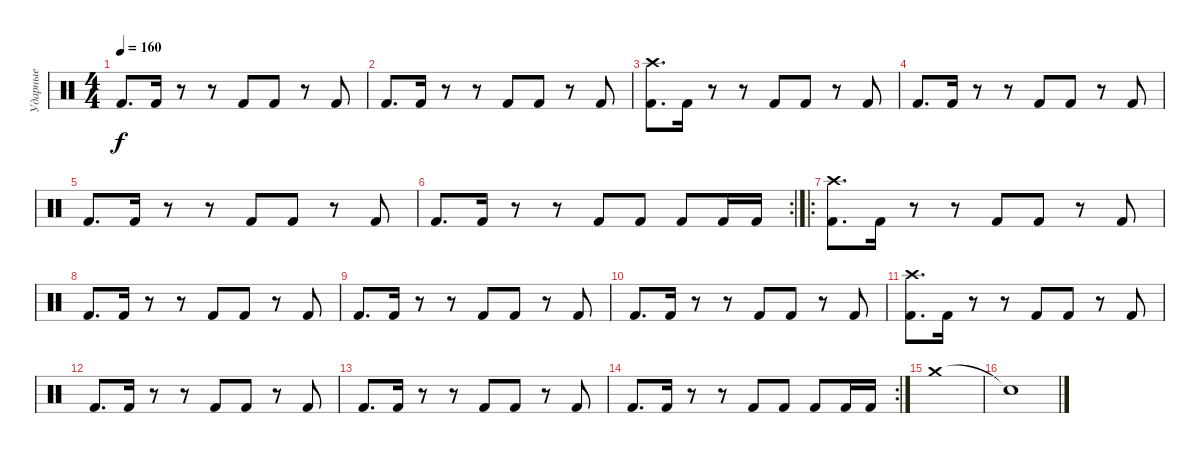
\track ("Ударные" "Ударные") {instrument percussion}
\staff {score}
\articulation defaults
\ts (4 4)
\tempo 160
\clef neutral
\ks c "Kick (hit) 2".8{d dy f} "Kick (hit) 2".16
r.8 r.8 "Kick (hit) 2".8 "Kick (hit) 2".8 r.8 "Kick (hit) 2".8 |
"Kick (hit) 2".8{d} "Kick (hit) 2".16 r.8 r.8 "Kick (hit) 2".8 "Kick (hit) 2".8 r.8 "Kick (hit) 2".8 |
("Kick (hit) 2" "Crash high (hit)").8{d} "Kick (hit) 2".16 r.8 r.8 "Kick (hit) 2".8 "Kick (hit) 2".8 r.8 "Kick (hit) 2".8 |
"Kick (hit) 2".8{d} "Kick (hit) 2".16 r.8 r.8 "Kick (hit) 2".8 "Kick (hit) 2".8 r.8 "Kick (hit) 2".8 |
"Kick (hit) 2".8{d} "Kick (hit) 2".16 r.8 r.8 "Kick (hit) 2".8 "Kick (hit) 2".8 r.8 "Kick (hit) 2".8 |
\rc 2 "Kick (hit) 2".8{d} "Kick (hit) 2".16
r.8 r.8 "Kick (hit) 2".8 "Kick (hit) 2".8 "Kick (hit) 2".8 "Kick (hit) 2".16 "Kick (hit) 2".16 |
\ro
("Kick (hit) 2" "Crash high (hit)").8{d} "Kick (hit) 2".16 r.8 r.8 "Kick (hit) 2".8 "Kick (hit) 2".8 r.8 "Kick (hit) 2".8 |
"Kick (hit) 2".8{d} "Kick (hit) 2".16 r.8 r.8 "Kick (hit) 2".8 "Kick (hit) 2".8 r.8 "Kick (hit) 2".8 |
"Kick (hit) 2".8{d} "Kick (hit) 2".16 r.8 r.8 "Kick (hit) 2".8 "Kick (hit) 2".8 r.8 "Kick (hit) 2".8 |
"Kick (hit) 2".8{d} "Kick (hit) 2".16 r.8 r.8 "Kick (hit) 2".8 "Kick (hit) 2".8 r.8 "Kick (hit) 2".8 |
("Kick (hit) 2" "Crash high (hit)").8{d} "Kick (hit) 2".16 r.8 r.8 "Kick (hit) 2".8 "Kick (hit) 2".8 r.8 "Kick (hit) 2".8 |
"Kick (hit) 2".8{d} "Kick (hit) 2".16 r.8 r.8 "Kick (hit) 2".8 "Kick (hit) 2".8 r.8 "Kick (hit) 2".8 |
"Kick (hit) 2".8{d} "Kick (hit) 2".16 r.8 r.8 "Kick (hit) 2".8 "Kick (hit) 2".8 r.8 "Kick (hit) 2".8 |
\rc 2 "Kick (hit) 2".8{d} "Kick (hit) 2".16
r.8 r.8 "Kick (hit) 2".8 "Kick (hit) 2".8 "Kick (hit) 2".8 "Kick (hit) 2".16 "Kick (hit) 2".16 |
"Crash medium (hit)".1 |
"Snare (hit)"{t}.1
